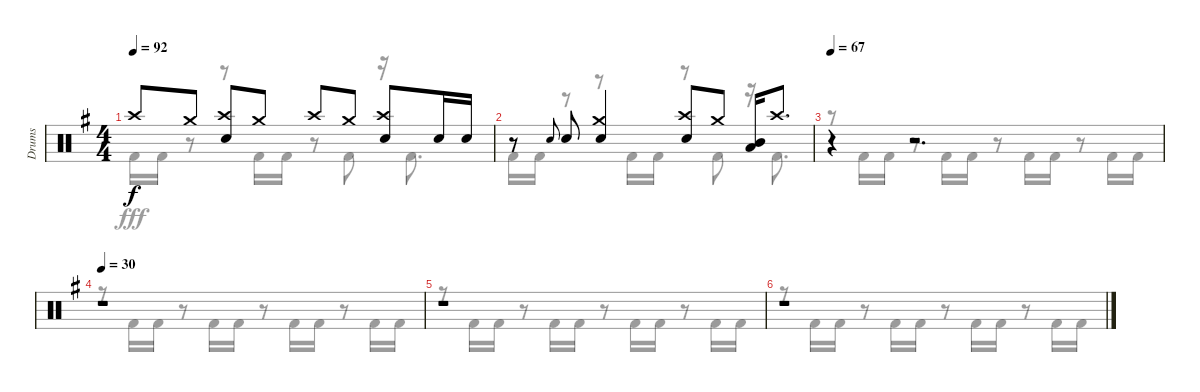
\track ("Drums" "Drums") {instrument percussion}
\staff {score}
\articulation defaults
\voice
\ts (4 4)
\tempo 92
\clef neutral
\ks eminor "Crash high (hit)".8{dy f} "Crash medium (hit)".8
("Crash high (hit)" "Snare (hit) 2").8 "Crash medium (hit)".8 "Crash high (hit)".8 "Crash medium (hit)".8 ("Crash high (hit)" "Snare (hit) 2").8 "Snare (hit) 2".16 "Snare (hit) 2".16 |
r.8 "Snare (hit) 2".8{gr onbeat} "Snare (hit) 2".8 ("Crash medium (hit)" "Snare (hit) 2").4 ("Crash high (hit)" "Snare (hit) 2").8 "Crash medium (hit)".8 ("Mid Tom (hit)" "Low Tom (hit)").16 "Crash high (hit)".8{d} |
\tempo 67
r.4 r.2{d} |
\tempo 30
r.1 |
r.1 |
r.1
\voice
\clef neutral
\ottava regular
\simile none
\ks eminor "Kick (hit) 2".16{dy fff} "Kick (hit) 2".16
r.8 r.8 "Kick (hit) 2".16 "Kick (hit) 2".16 r.8 "Kick (hit) 2".8 r.16 "Kick (hit) 2".8{d} |
"Kick (hit) 2".16 "Kick (hit) 2".16 r.8 r.8 "Kick (hit) 2".16 "Kick (hit) 2".16 r.8 "Kick (hit) 2".8 r.16 "Kick (hit) 2".8{d} |
r.8 "Kick (hit) 2".16 "Kick (hit) 2".16 r.8 "Kick (hit) 2".16 "Kick (hit) 2".16 r.8 "Kick (hit) 2".16 "Kick (hit) 2".16 r.8 "Kick (hit) 2".16 "Kick (hit) 2".16 |
r.8 "Kick (hit) 2".16 "Kick (hit) 2".16 r.8 "Kick (hit) 2".16 "Kick (hit) 2".16 r.8 "Kick (hit) 2".16 "Kick (hit) 2".16 r.8 "Kick (hit) 2".16 "Kick (hit) 2".16 |
r.8 "Kick (hit) 2".16 "Kick (hit) 2".16 r.8 "Kick (hit) 2".16 "Kick (hit) 2".16 r.8 "Kick (hit) 2".16 "Kick (hit) 2".16 r.8 "Kick (hit) 2".16 "Kick (hit) 2".16 |
r.8 "Kick (hit) 2".16 "Kick (hit) 2".16 r.8 "Kick (hit) 2".16 "Kick (hit) 2".16 r.8 "Kick (hit) 2".16 "Kick (hit) 2".16 r.8 "Kick (hit) 2".16 "Kick (hit) 2".16
